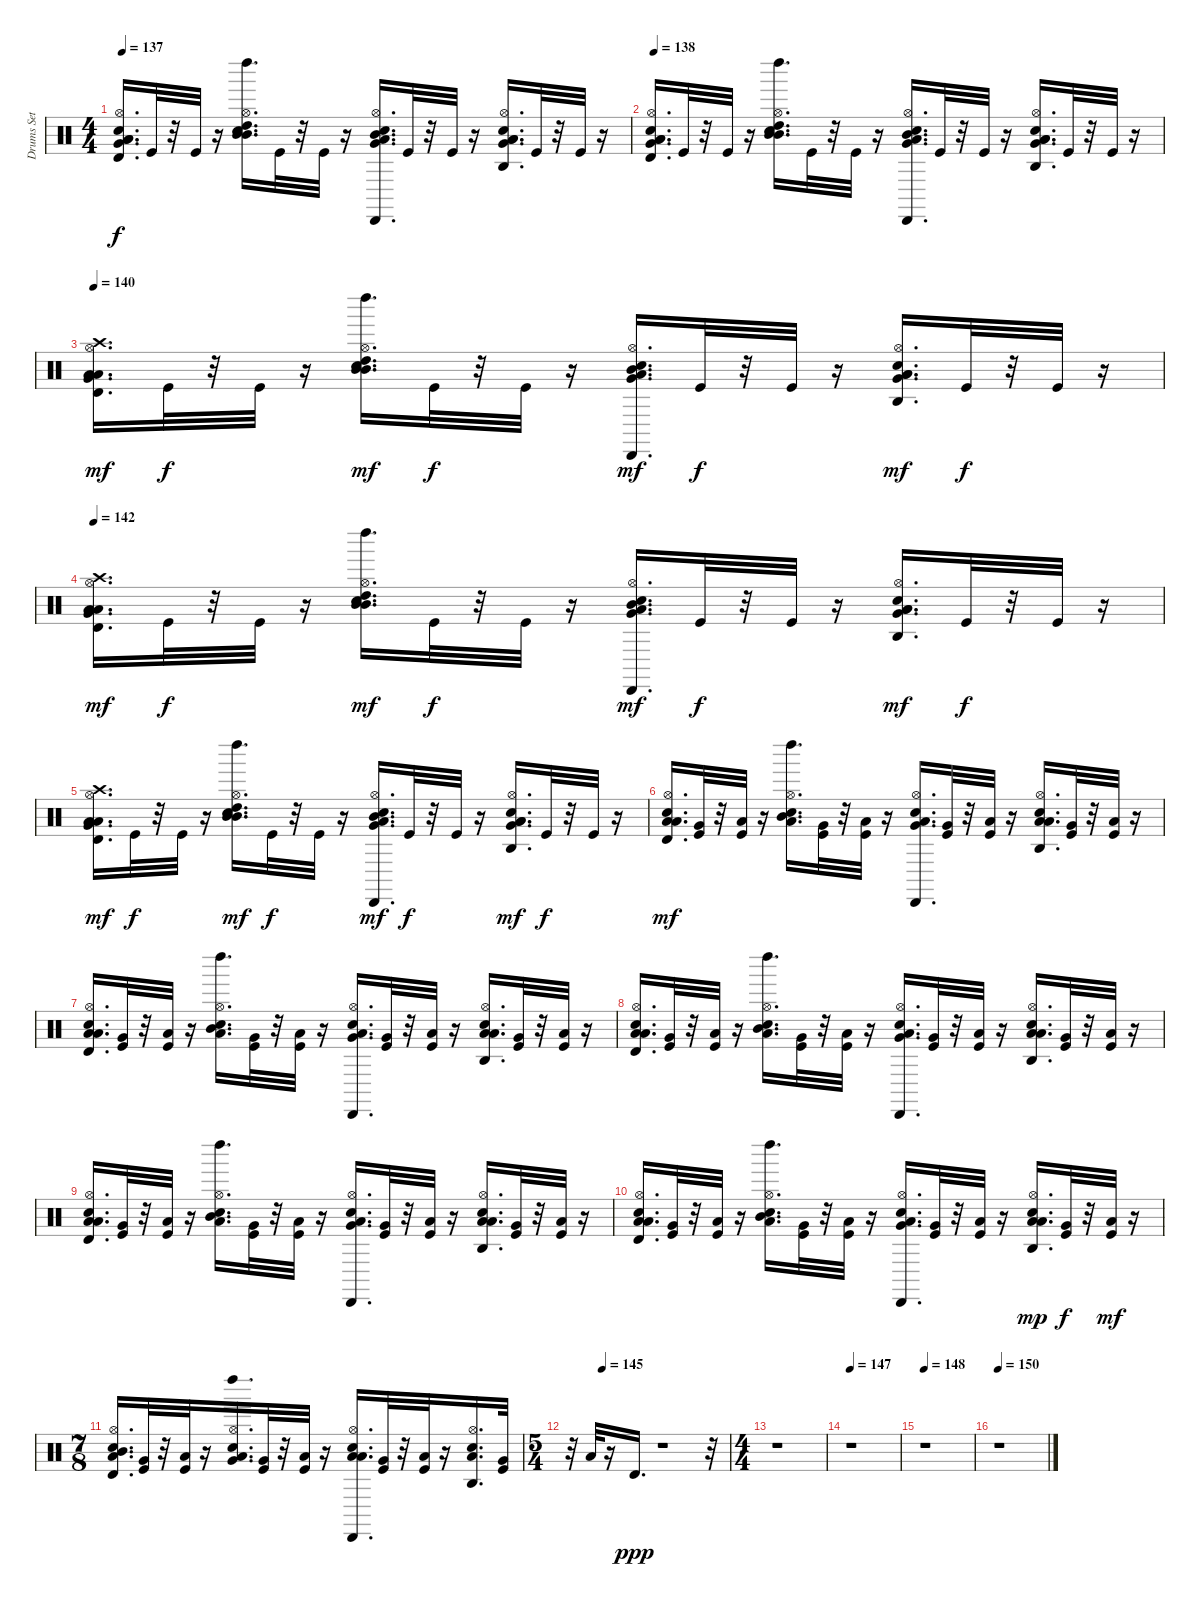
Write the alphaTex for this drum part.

\track ("Drums Set" "Drums Set") {instrument percussion}
\staff {score}
\articulation defaults
\ts (4 4)
\tempo 137
\clef neutral
\ks c
("Timbale high (hit)" "Very Low Tom (hit)" "Low Floor Tom (hit)" "Low Floor Tom (hit)" "Hi-Hat (open)" "Snare (hit) 2").16{d dy f} "Kick (hit)".32 r.32 "Kick (hit)".32 r.16 ("Left Maraca (hit)" "High Tom (hit)" "Mid Tom (hit)" "Mid Tom (hit)" "Hi-Hat (open)" "Snare (hit) 2").16{d} "Kick (hit)".32 r.32 "Kick (hit)".32 r.16 ("Cabasa (hit)" "Mid Tom (hit)" "Low Tom (hit)" "Very Low Tom (hit)" "Hi-Hat (open)" "Snare (hit) 2").16{d} "Kick (hit)".32 r.32 "Kick (hit)".32 r.16 ("Agogo high (hit)" "Low Tom (hit)" "Very Low Tom (hit)" "Low Floor Tom (hit)" "Hi-Hat (open)" "Snare (hit) 2").16{d} "Kick (hit)".32 r.32 "Kick (hit)".32 r.16 |
\tempo 138
("Timbale high (hit)" "Very Low Tom (hit)" "Low Floor Tom (hit)" "Low Floor Tom (hit)" "Hi-Hat (open)" "Snare (hit) 2").16{d} "Kick (hit)".32 r.32 "Kick (hit)".32 r.16 ("Left Maraca (hit)" "Mid Tom (hit)" "High Tom (hit)" "Mid Tom (hit)" "Hi-Hat (open)" "Snare (hit) 2").16{d} "Kick (hit)".32 r.32 "Kick (hit)".32 r.16 ("Cabasa (hit)" "Low Tom (hit)" "Mid Tom (hit)" "Very Low Tom (hit)" "Hi-Hat (open)" "Snare (hit) 2").16{d} "Kick (hit)".32 r.32 "Kick (hit)".32 r.16 ("Agogo high (hit)" "Very Low Tom (hit)" "Low Tom (hit)" "Low Floor Tom (hit)" "Hi-Hat (open)" "Snare (hit) 2").16{d} "Kick (hit)".32 r.32 "Kick (hit)".32 r.16 |
\tempo 140
("Timbale high (hit)" "Low Floor Tom (hit)" "Very Low Tom (hit)" "Crash high (hit)" "Low Floor Tom (hit)" "Hi-Hat (open)").16{d dy mf} "Kick (hit)".32{dy f} r.32 "Kick (hit)".32 r.16 ("Left Maraca (hit)" "Mid Tom (hit)" "High Tom (hit)" "Mid Tom (hit)" "Hi-Hat (open)" "Snare (hit) 2").16{d dy mf} "Kick (hit)".32{dy f} r.32 "Kick (hit)".32 r.16 ("Cabasa (hit)" "Low Tom (hit)" "Mid Tom (hit)" "Very Low Tom (hit)" "Hi-Hat (open)" "Snare (hit) 2").16{d dy mf} "Kick (hit)".32{dy f} r.32 "Kick (hit)".32 r.16 ("Agogo high (hit)" "Very Low Tom (hit)" "Low Tom (hit)" "Low Floor Tom (hit)" "Hi-Hat (open)" "Snare (hit) 2").16{d dy mf} "Kick (hit)".32{dy f} r.32 "Kick (hit)".32 r.16 |
\tempo 142
("Timbale high (hit)" "Very Low Tom (hit)" "Low Floor Tom (hit)" "Crash high (hit)" "Low Floor Tom (hit)" "Hi-Hat (open)").16{d dy mf} "Kick (hit)".32{dy f} r.32 "Kick (hit)".32 r.16 ("Left Maraca (hit)" "Mid Tom (hit)" "High Tom (hit)" "Mid Tom (hit)" "Hi-Hat (open)" "Snare (hit) 2").16{d dy mf} "Kick (hit)".32{dy f} r.32 "Kick (hit)".32 r.16 ("Cabasa (hit)" "Low Tom (hit)" "Mid Tom (hit)" "Very Low Tom (hit)" "Hi-Hat (open)" "Snare (hit) 2").16{d dy mf} "Kick (hit)".32{dy f} r.32 "Kick (hit)".32 r.16 ("Agogo high (hit)" "Very Low Tom (hit)" "Low Tom (hit)" "Low Floor Tom (hit)" "Hi-Hat (open)" "Snare (hit) 2").16{d dy mf} "Kick (hit)".32{dy f} r.32 "Kick (hit)".32 r.16 |
("Timbale high (hit)" "Very Low Tom (hit)" "Low Floor Tom (hit)" "Crash high (hit)" "Low Floor Tom (hit)" "Hi-Hat (open)").16{d dy mf} "Kick (hit)".32{dy f} r.32 "Kick (hit)".32 r.16 ("Left Maraca (hit)" "Mid Tom (hit)" "High Tom (hit)" "Mid Tom (hit)" "Hi-Hat (open)" "Snare (hit) 2").16{d dy mf} "Kick (hit)".32{dy f} r.32 "Kick (hit)".32 r.16 ("Cabasa (hit)" "Low Tom (hit)" "Mid Tom (hit)" "Very Low Tom (hit)" "Hi-Hat (open)" "Snare (hit) 2").16{d dy mf} "Kick (hit)".32{dy f} r.32 "Kick (hit)".32 r.16 ("Agogo high (hit)" "Very Low Tom (hit)" "Low Tom (hit)" "Low Floor Tom (hit)" "Hi-Hat (open)" "Snare (hit) 2").16{d dy mf} "Kick (hit)".32{dy f} r.32 "Kick (hit)".32 r.16 |
("Timbale high (hit)" "Low Tom (hit)" "Low Floor Tom (hit)" "Hi-Hat (open)" "Snare (hit) 2").16{d dy mf} ("Very Low Tom (hit)" "Kick (hit)").32 r.32 ("Low Floor Tom (hit)" "Kick (hit)").32 r.16 ("Left Maraca (hit)" "Low Tom (hit)" "Mid Tom (hit)" "Hi-Hat (open)" "Snare (hit) 2").16{d} ("Very Low Tom (hit)" "Kick (hit)").32 r.32 ("Low Floor Tom (hit)" "Kick (hit)").32 r.16 ("Cabasa (hit)" "Low Tom (hit)" "Very Low Tom (hit)" "Hi-Hat (open)" "Snare (hit) 2").16{d} ("Very Low Tom (hit)" "Kick (hit)").32 r.32 ("Low Floor Tom (hit)" "Kick (hit)").32 r.16 ("Agogo high (hit)" "Low Tom (hit)" "Low Floor Tom (hit)" "Hi-Hat (open)" "Snare (hit) 2").16{d} ("Very Low Tom (hit)" "Kick (hit)").32 r.32 ("Low Floor Tom (hit)" "Kick (hit)").32 r.16 |
("Timbale high (hit)" "Low Tom (hit)" "Low Floor Tom (hit)" "Hi-Hat (open)" "Snare (hit) 2").16{d} ("Very Low Tom (hit)" "Kick (hit)").32 r.32 ("Low Floor Tom (hit)" "Kick (hit)").32 r.16 ("Left Maraca (hit)" "Low Tom (hit)" "Mid Tom (hit)" "Hi-Hat (open)" "Snare (hit) 2").16{d} ("Very Low Tom (hit)" "Kick (hit)").32 r.32 ("Low Floor Tom (hit)" "Kick (hit)").32 r.16 ("Cabasa (hit)" "Low Tom (hit)" "Very Low Tom (hit)" "Hi-Hat (open)" "Snare (hit) 2").16{d} ("Very Low Tom (hit)" "Kick (hit)").32 r.32 ("Low Floor Tom (hit)" "Kick (hit)").32 r.16 ("Agogo high (hit)" "Low Tom (hit)" "Low Floor Tom (hit)" "Hi-Hat (open)" "Snare (hit) 2").16{d} ("Very Low Tom (hit)" "Kick (hit)").32 r.32 ("Low Floor Tom (hit)" "Kick (hit)").32 r.16 |
("Timbale high (hit)" "Low Tom (hit)" "Low Floor Tom (hit)" "Hi-Hat (open)" "Snare (hit) 2").16{d} ("Very Low Tom (hit)" "Kick (hit)").32 r.32 ("Low Floor Tom (hit)" "Kick (hit)").32 r.16 ("Left Maraca (hit)" "Low Tom (hit)" "Mid Tom (hit)" "Hi-Hat (open)" "Snare (hit) 2").16{d} ("Very Low Tom (hit)" "Kick (hit)").32 r.32 ("Low Floor Tom (hit)" "Kick (hit)").32 r.16 ("Cabasa (hit)" "Low Tom (hit)" "Very Low Tom (hit)" "Hi-Hat (open)" "Snare (hit) 2").16{d} ("Very Low Tom (hit)" "Kick (hit)").32 r.32 ("Low Floor Tom (hit)" "Kick (hit)").32 r.16 ("Agogo high (hit)" "Low Tom (hit)" "Low Floor Tom (hit)" "Hi-Hat (open)" "Snare (hit) 2").16{d} ("Very Low Tom (hit)" "Kick (hit)").32 r.32 ("Low Floor Tom (hit)" "Kick (hit)").32 r.16 |
("Timbale high (hit)" "Low Tom (hit)" "Low Floor Tom (hit)" "Hi-Hat (open)" "Snare (hit) 2").16{d} ("Very Low Tom (hit)" "Kick (hit)").32 r.32 ("Low Floor Tom (hit)" "Kick (hit)").32 r.16 ("Left Maraca (hit)" "Low Tom (hit)" "Mid Tom (hit)" "Hi-Hat (open)" "Snare (hit) 2").16{d} ("Very Low Tom (hit)" "Kick (hit)").32 r.32 ("Low Floor Tom (hit)" "Kick (hit)").32 r.16 ("Cabasa (hit)" "Low Tom (hit)" "Very Low Tom (hit)" "Hi-Hat (open)" "Snare (hit) 2").16{d} ("Very Low Tom (hit)" "Kick (hit)").32 r.32 ("Low Floor Tom (hit)" "Kick (hit)").32 r.16 ("Agogo high (hit)" "Low Tom (hit)" "Low Floor Tom (hit)" "Hi-Hat (open)" "Snare (hit) 2").16{d} ("Very Low Tom (hit)" "Kick (hit)").32 r.32 ("Low Floor Tom (hit)" "Kick (hit)").32 r.16 |
("Timbale high (hit)" "Low Tom (hit)" "Low Floor Tom (hit)" "Hi-Hat (open)" "Snare (hit) 2").16{d} ("Very Low Tom (hit)" "Kick (hit)").32 r.32 ("Low Floor Tom (hit)" "Kick (hit)").32 r.16 ("Left Maraca (hit)" "Low Tom (hit)" "Mid Tom (hit)" "Hi-Hat (open)" "Snare (hit) 2").16{d} ("Very Low Tom (hit)" "Kick (hit)").32 r.32 ("Low Floor Tom (hit)" "Kick (hit)").32 r.16 ("Cabasa (hit)" "Low Tom (hit)" "Very Low Tom (hit)" "Hi-Hat (open)" "Snare (hit) 2").16{d} ("Very Low Tom (hit)" "Kick (hit)").32 r.32 ("Low Floor Tom (hit)" "Kick (hit)").32 r.16 ("Agogo high (hit)" "Low Tom (hit)" "Low Floor Tom (hit)" "Hi-Hat (open)" "Snare (hit) 2").16{d dy mp} ("Very Low Tom (hit)" "Kick (hit)").32{dy f} r.32 ("Low Floor Tom (hit)" "Kick (hit)").32{dy mf} r.16 |
\ts (7 8)
("Timbale high (hit)" "Low Tom (hit)" "Mid Tom (hit)" "Hi-Hat (open)" "Snare (hit) 2").16{d} ("Very Low Tom (hit)" "Kick (hit)").32 r.32 ("Low Floor Tom (hit)" "Kick (hit)").32 r.16 ("Left Maraca (hit)" "Low Tom (hit)" "Very Low Tom (hit)" "Hi-Hat (open)" "Snare (hit) 2").16{d} ("Very Low Tom (hit)" "Kick (hit)").32 r.32 ("Low Floor Tom (hit)" "Kick (hit)").32 r.16 ("Cabasa (hit)" "Low Tom (hit)" "Low Floor Tom (hit)" "Hi-Hat (open)" "Snare (hit) 2").16{d} ("Very Low Tom (hit)" "Kick (hit)").32 r.32 ("Low Floor Tom (hit)" "Kick (hit)").32 r.16 ("Agogo high (hit)" "Low Tom (hit)" "Hi-Hat (open)" "Snare (hit) 2").16{d} ("Very Low Tom (hit)" "Kick (hit)").32 |
\ts (5 4)
\tempo (145 0.2)
r.32 "Low Floor Tom (hit)".32 r.16 "Timbale high (hit)".16{d dy ppp} r.1 r.32 |
\ts (4 4)
r.1 |
\tempo 147
r.1 |
\tempo 148
r.1 |
\tempo 150
r.1
